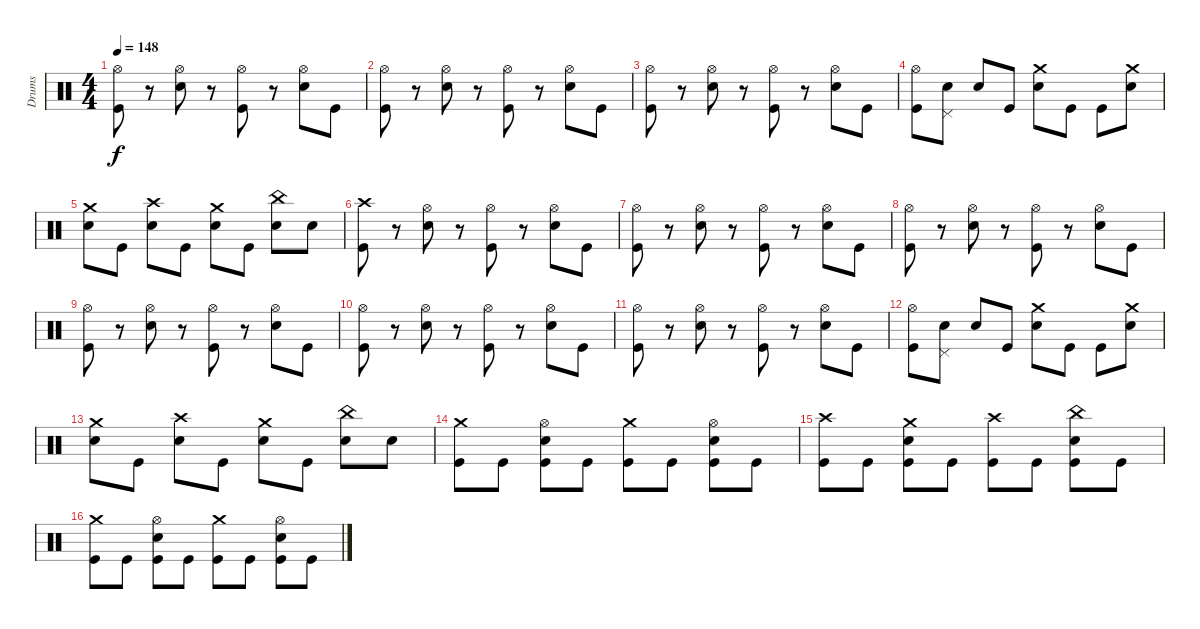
\track ("Drums" "Drums") {instrument percussion}
\staff {score}
\articulation defaults
\ts (4 4)
\tempo 148
\clef neutral
\ks c
("Hi-Hat (open)" "Kick (hit)").8{dy f} r.8 ("Hi-Hat (open)" "Electric Snare (hit)").8 r.8 ("Hi-Hat (open)" "Kick (hit)").8 r.8 ("Hi-Hat (open)" "Electric Snare (hit)").8 "Kick (hit)".8 |
("Hi-Hat (open)" "Kick (hit)").8 r.8 ("Hi-Hat (open)" "Electric Snare (hit)").8 r.8 ("Hi-Hat (open)" "Kick (hit)").8 r.8 ("Hi-Hat (open)" "Electric Snare (hit)").8 "Kick (hit)".8 |
("Hi-Hat (open)" "Kick (hit)").8 r.8 ("Hi-Hat (open)" "Electric Snare (hit)").8 r.8 ("Hi-Hat (open)" "Kick (hit)").8 r.8 ("Hi-Hat (open)" "Electric Snare (hit)").8 "Kick (hit)".8 |
("Hi-Hat (open)" "Kick (hit)").8 ("Pedal Hi-Hat (hit)" "Electric Snare (hit)").8 "Electric Snare (hit)".8 "Kick (hit)".8 ("Crash medium (hit)" "Electric Snare (hit)").8 "Kick (hit)".8 "Kick (hit)".8 ("Crash medium (hit)" "Electric Snare (hit)").8 |
("Crash medium (hit)" "Electric Snare (hit)").8 "Kick (hit)".8 ("Crash high (hit)" "Electric Snare (hit)").8 "Kick (hit)".8 ("Crash medium (hit)" "Electric Snare (hit)").8 "Kick (hit)".8 ("China (hit)" "Electric Snare (hit)").8 "Electric Snare (hit)".8 |
("Crash high (hit)" "Kick (hit)").8 r.8 ("Hi-Hat (open)" "Electric Snare (hit)").8 r.8 ("Hi-Hat (open)" "Kick (hit)").8 r.8 ("Hi-Hat (open)" "Electric Snare (hit)").8 "Kick (hit)".8 |
("Hi-Hat (open)" "Kick (hit)").8 r.8 ("Hi-Hat (open)" "Electric Snare (hit)").8 r.8 ("Hi-Hat (open)" "Kick (hit)").8 r.8 ("Hi-Hat (open)" "Electric Snare (hit)").8 "Kick (hit)".8 |
("Hi-Hat (open)" "Kick (hit)").8 r.8 ("Hi-Hat (open)" "Electric Snare (hit)").8 r.8 ("Hi-Hat (open)" "Kick (hit)").8 r.8 ("Hi-Hat (open)" "Electric Snare (hit)").8 "Kick (hit)".8 |
("Hi-Hat (open)" "Kick (hit)").8 r.8 ("Hi-Hat (open)" "Electric Snare (hit)").8 r.8 ("Hi-Hat (open)" "Kick (hit)").8 r.8 ("Hi-Hat (open)" "Electric Snare (hit)").8 "Kick (hit)".8 |
("Hi-Hat (open)" "Kick (hit)").8 r.8 ("Hi-Hat (open)" "Electric Snare (hit)").8 r.8 ("Hi-Hat (open)" "Kick (hit)").8 r.8 ("Hi-Hat (open)" "Electric Snare (hit)").8 "Kick (hit)".8 |
("Hi-Hat (open)" "Kick (hit)").8 r.8 ("Hi-Hat (open)" "Electric Snare (hit)").8 r.8 ("Hi-Hat (open)" "Kick (hit)").8 r.8 ("Hi-Hat (open)" "Electric Snare (hit)").8 "Kick (hit)".8 |
("Hi-Hat (open)" "Kick (hit)").8 ("Pedal Hi-Hat (hit)" "Electric Snare (hit)").8 "Electric Snare (hit)".8 "Kick (hit)".8 ("Crash medium (hit)" "Electric Snare (hit)").8 "Kick (hit)".8 "Kick (hit)".8 ("Crash medium (hit)" "Electric Snare (hit)").8 |
("Crash medium (hit)" "Electric Snare (hit)").8 "Kick (hit)".8 ("Crash high (hit)" "Electric Snare (hit)").8 "Kick (hit)".8 ("Crash medium (hit)" "Electric Snare (hit)").8 "Kick (hit)".8 ("China (hit)" "Electric Snare (hit)").8 "Electric Snare (hit)".8 |
("Crash medium (hit)" "Kick (hit)").8 "Kick (hit)".8 ("Hi-Hat (open)" "Electric Snare (hit)" "Kick (hit)").8 "Kick (hit)".8 ("Crash medium (hit)" "Kick (hit)").8 "Kick (hit)".8 ("Hi-Hat (open)" "Electric Snare (hit)" "Kick (hit)").8 "Kick (hit)".8 |
("Crash high (hit)" "Kick (hit)").8 "Kick (hit)".8 ("Crash medium (hit)" "Electric Snare (hit)" "Kick (hit)").8 "Kick (hit)".8 ("Crash high (hit)" "Kick (hit)").8 "Kick (hit)".8 ("China (hit)" "Electric Snare (hit)" "Kick (hit)").8 "Kick (hit)".8 |
("Crash medium (hit)" "Kick (hit)").8 "Kick (hit)".8 ("Hi-Hat (open)" "Electric Snare (hit)" "Kick (hit)").8 "Kick (hit)".8 ("Crash medium (hit)" "Kick (hit)").8 "Kick (hit)".8 ("Hi-Hat (open)" "Electric Snare (hit)" "Kick (hit)").8 "Kick (hit)".8
